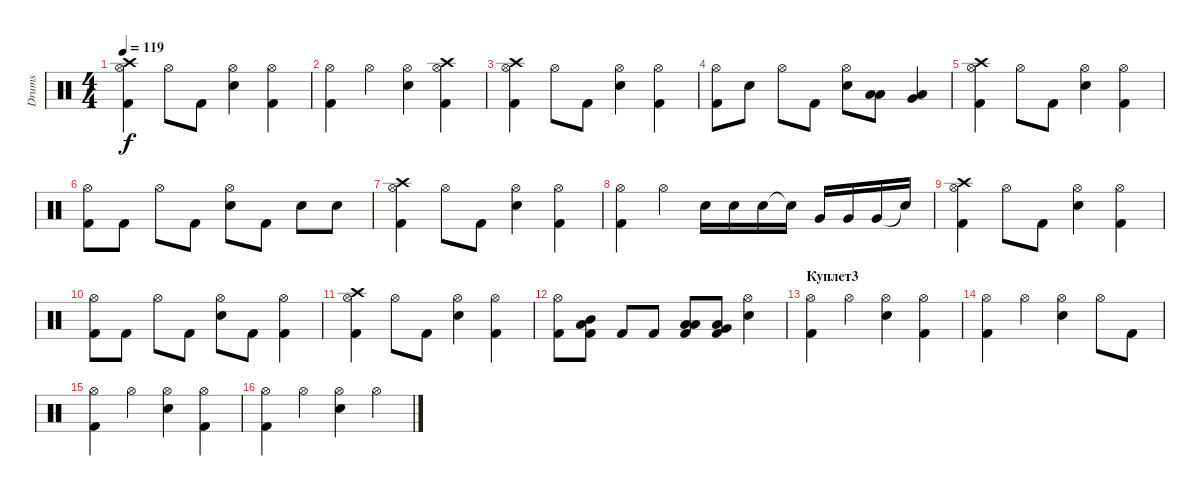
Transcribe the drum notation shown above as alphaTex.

\track ("Drums" "Drums") {instrument percussion}
\staff {score}
\articulation defaults
\ts (4 4)
\tempo 119
\clef neutral
\ks c
("Kick (hit) 2" "Hi-Hat (open)" "Crash high (hit)").4{dy f} "Hi-Hat (open)".8 "Kick (hit) 2".8 ("Electric Snare (hit)" "Hi-Hat (open)").4 ("Kick (hit) 2" "Hi-Hat (open)").4 |
("Kick (hit) 2" "Hi-Hat (open)").4 "Hi-Hat (open)".4 ("Electric Snare (hit)" "Hi-Hat (open)").4 ("Kick (hit) 2" "Hi-Hat (open)" "Crash high (hit)").4 |
("Kick (hit) 2" "Hi-Hat (open)" "Crash high (hit)").4 "Hi-Hat (open)".8 "Kick (hit) 2".8 ("Electric Snare (hit)" "Hi-Hat (open)").4 ("Kick (hit) 2" "Hi-Hat (open)").4 |
("Kick (hit) 2" "Hi-Hat (open)").8 "Electric Snare (hit)".8 "Hi-Hat (open)".8 "Kick (hit) 2".8 ("Electric Snare (hit)" "Hi-Hat (open)").8 ("Low Tom (hit)" "Low Floor Tom (hit)").8 ("Very Low Tom (hit)" "Low Floor Tom (hit)").4 |
("Kick (hit) 2" "Hi-Hat (open)" "Crash high (hit)").4 "Hi-Hat (open)".8 "Kick (hit) 2".8 ("Electric Snare (hit)" "Hi-Hat (open)").4 ("Kick (hit) 2" "Hi-Hat (open)").4 |
("Kick (hit) 2" "Hi-Hat (open)").8 "Kick (hit) 2".8 "Hi-Hat (open)".8 "Kick (hit) 2".8 ("Electric Snare (hit)" "Hi-Hat (open)").8 "Kick (hit) 2".8 "Electric Snare (hit)".8 "Electric Snare (hit)".8 |
("Kick (hit) 2" "Hi-Hat (open)" "Crash high (hit)").4 "Hi-Hat (open)".8 "Kick (hit) 2".8 ("Electric Snare (hit)" "Hi-Hat (open)").4 ("Kick (hit) 2" "Hi-Hat (open)").4 |
("Kick (hit) 2" "Hi-Hat (open)").4 "Hi-Hat (open)".4 "Electric Snare (hit)".16 "Electric Snare (hit)".16 "Electric Snare (hit)".16 "Snare (hit)"{t}.16 "Very Low Tom (hit)".16 "Very Low Tom (hit)".16 "Very Low Tom (hit)".16 "Snare (hit)"{t}.16 |
("Kick (hit) 2" "Hi-Hat (open)" "Crash high (hit)").4 "Hi-Hat (open)".8 "Kick (hit) 2".8 ("Electric Snare (hit)" "Hi-Hat (open)").4 ("Kick (hit) 2" "Hi-Hat (open)").4 |
("Kick (hit) 2" "Hi-Hat (open)").8 "Kick (hit) 2".8 "Hi-Hat (open)".8 "Kick (hit) 2".8 ("Electric Snare (hit)" "Hi-Hat (open)").8 "Kick (hit) 2".8 ("Kick (hit) 2" "Hi-Hat (open)").4 |
("Kick (hit) 2" "Hi-Hat (open)" "Crash high (hit)").4 "Hi-Hat (open)".8 "Kick (hit) 2".8 ("Electric Snare (hit)" "Hi-Hat (open)").4 ("Kick (hit) 2" "Hi-Hat (open)").4 |
("Kick (hit) 2" "Hi-Hat (open)").8 ("Kick (hit) 2" "Mid Tom (hit)" "Low Floor Tom (hit)").8 "Kick (hit) 2".8 "Kick (hit) 2".8 ("Kick (hit) 2" "Low Tom (hit)" "Low Floor Tom (hit)").8 ("Kick (hit) 2" "Very Low Tom (hit)" "Low Floor Tom (hit)").8 ("Electric Snare (hit)" "Hi-Hat (open)").4 |
\section ("" "Куплет3")
("Kick (hit) 2" "Hi-Hat (open)").4 "Hi-Hat (open)".4 ("Electric Snare (hit)" "Hi-Hat (open)").4 ("Kick (hit) 2" "Hi-Hat (open)").4 |
("Kick (hit) 2" "Hi-Hat (open)").4 "Hi-Hat (open)".4 ("Electric Snare (hit)" "Hi-Hat (open)").4 "Hi-Hat (open)".8 "Kick (hit) 2".8 |
("Kick (hit) 2" "Hi-Hat (open)").4 "Hi-Hat (open)".4 ("Electric Snare (hit)" "Hi-Hat (open)").4 ("Kick (hit) 2" "Hi-Hat (open)").4 |
("Kick (hit) 2" "Hi-Hat (open)").4 "Hi-Hat (open)".4 ("Electric Snare (hit)" "Hi-Hat (open)").4 "Hi-Hat (open)".4
